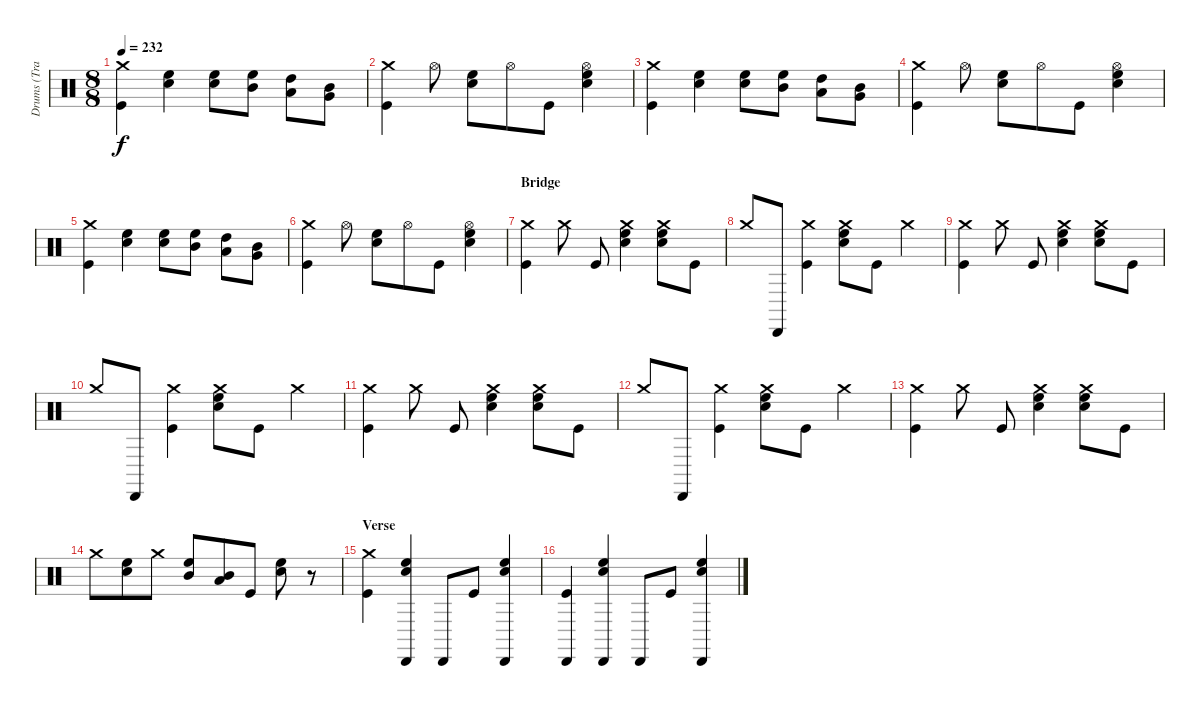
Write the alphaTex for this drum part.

\track ("Drums (Travis)" "Drums (Tra") {instrument percussion}
\staff {score}
\articulation defaults
\ts (8 8)
\tempo 232
\clef neutral
\ks c
("Crash medium (hit)" "Kick (hit)").4{dy f} ("High Floor Tom (hit)" "Electric Snare (hit)").4 ("Electric Snare (hit)" "High Floor Tom (hit)").8 ("Mid Tom (hit)" "High Floor Tom (hit)").8 ("High Tom (hit)" "Low Tom (hit)").8 ("Very Low Tom (hit)" "Mid Tom (hit)").8 |
("Kick (hit)" "Crash medium (hit)").4 "Hi-Hat (open)".8 ("High Floor Tom (hit)" "Electric Snare (hit)").8 "Hi-Hat (open)".8 "Kick (hit)".8 ("High Floor Tom (hit)" "Electric Snare (hit)" "Hi-Hat (open)").4 |
("Crash medium (hit)" "Kick (hit)").4 ("High Floor Tom (hit)" "Electric Snare (hit)").4 ("Electric Snare (hit)" "High Floor Tom (hit)").8 ("Mid Tom (hit)" "High Floor Tom (hit)").8 ("High Tom (hit)" "Low Tom (hit)").8 ("Very Low Tom (hit)" "Mid Tom (hit)").8 |
("Kick (hit)" "Crash medium (hit)").4 "Hi-Hat (open)".8 ("High Floor Tom (hit)" "Electric Snare (hit)").8 "Hi-Hat (open)".8 "Kick (hit)".8 ("High Floor Tom (hit)" "Electric Snare (hit)" "Hi-Hat (open)").4 |
("Crash medium (hit)" "Kick (hit)").4 ("High Floor Tom (hit)" "Electric Snare (hit)").4 ("Electric Snare (hit)" "High Floor Tom (hit)").8 ("Mid Tom (hit)" "High Floor Tom (hit)").8 ("High Tom (hit)" "Low Tom (hit)").8 ("Very Low Tom (hit)" "Mid Tom (hit)").8 |
("Kick (hit)" "Crash medium (hit)").4 "Hi-Hat (open)".8 ("High Floor Tom (hit)" "Electric Snare (hit)").8 "Hi-Hat (open)".8 "Kick (hit)".8 ("High Floor Tom (hit)" "Electric Snare (hit)" "Hi-Hat (open)").4 |
\section ("" "Bridge")
("Kick (hit)" "Crash medium (hit)").4 "Crash medium (hit)".8 "Kick (hit)".8 ("High Floor Tom (hit)" "Electric Snare (hit)" "Crash medium (hit)").4 ("Electric Snare (hit)" "High Floor Tom (hit)" "Crash medium (hit)").8 "Kick (hit)".8 |
"Crash medium (hit)".8 "Cabasa (hit)".8 ("Kick (hit)" "Crash medium (hit)").4 ("High Floor Tom (hit)" "Electric Snare (hit)" "Crash medium (hit)").8 "Kick (hit)".8 "Crash medium (hit)".4 |
("Kick (hit)" "Crash medium (hit)").4 "Crash medium (hit)".8 "Kick (hit)".8 ("High Floor Tom (hit)" "Electric Snare (hit)" "Crash medium (hit)").4 ("Electric Snare (hit)" "High Floor Tom (hit)" "Crash medium (hit)").8 "Kick (hit)".8 |
"Crash medium (hit)".8 "Cabasa (hit)".8 ("Kick (hit)" "Crash medium (hit)").4 ("High Floor Tom (hit)" "Electric Snare (hit)" "Crash medium (hit)").8 "Kick (hit)".8 "Crash medium (hit)".4 |
("Kick (hit)" "Crash medium (hit)").4 "Crash medium (hit)".8 "Kick (hit)".8 ("High Floor Tom (hit)" "Electric Snare (hit)" "Crash medium (hit)").4 ("Electric Snare (hit)" "High Floor Tom (hit)" "Crash medium (hit)").8 "Kick (hit)".8 |
"Crash medium (hit)".8 "Cabasa (hit)".8 ("Kick (hit)" "Crash medium (hit)").4 ("High Floor Tom (hit)" "Electric Snare (hit)" "Crash medium (hit)").8 "Kick (hit)".8 "Crash medium (hit)".4 |
("Kick (hit)" "Crash medium (hit)").4 "Crash medium (hit)".8 "Kick (hit)".8 ("High Floor Tom (hit)" "Electric Snare (hit)" "Crash medium (hit)").4 ("Electric Snare (hit)" "High Floor Tom (hit)" "Crash medium (hit)").8 "Kick (hit)".8 |
"Crash medium (hit)".8 ("High Floor Tom (hit)" "Electric Snare (hit)").8 "Crash medium (hit)".8 ("High Floor Tom (hit)" "Mid Tom (hit)").8 ("Mid Tom (hit)" "Low Tom (hit)").8 "Kick (hit)".8 ("Electric Snare (hit)" "High Floor Tom (hit)").8 r.8 |
\section ("" "Verse")
("Crash medium (hit)" "Kick (hit)").4 ("Electric Snare (hit)" "High Floor Tom (hit)" "Cabasa (hit)").4 "Cabasa (hit)".8 "Kick (hit)".8 ("High Floor Tom (hit)" "Electric Snare (hit)" "Cabasa (hit)").4 |
("Kick (hit)" "Cabasa (hit)").4 ("Electric Snare (hit)" "High Floor Tom (hit)" "Cabasa (hit)").4 "Cabasa (hit)".8 "Kick (hit)".8 ("High Floor Tom (hit)" "Electric Snare (hit)" "Cabasa (hit)").4
